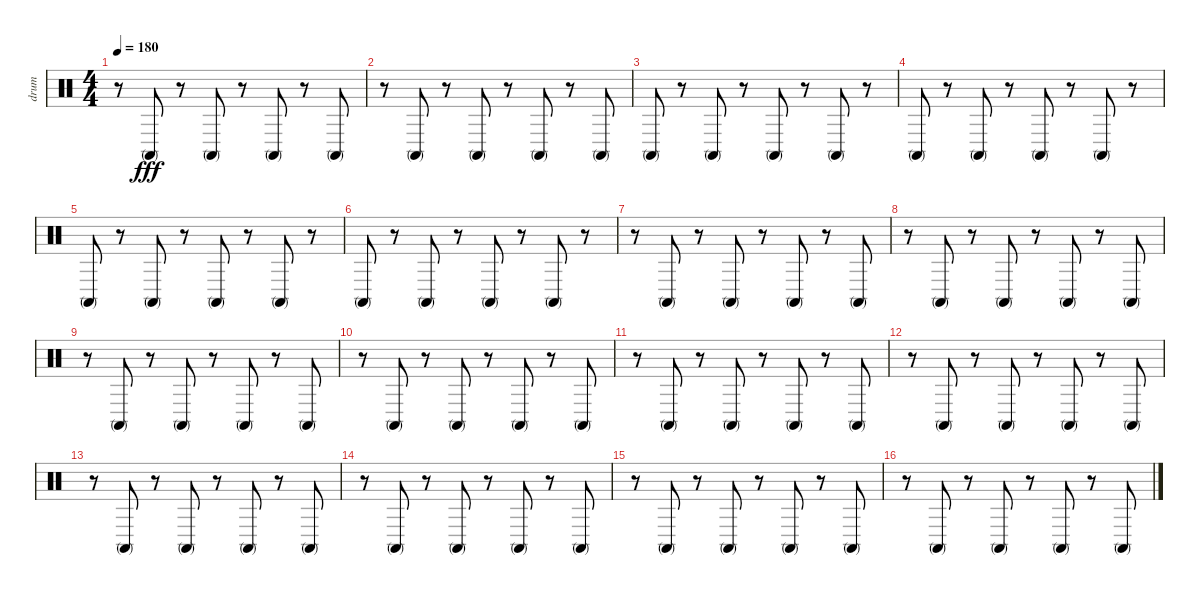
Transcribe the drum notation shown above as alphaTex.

\track ("drum" "drum") {instrument percussion}
\staff {score}
\articulation defaults
\ts (4 4)
\tempo 180
\clef neutral
\ks c
r.8{dy fff} "Conga high (mute)".8 r.8 "Conga high (mute)".8 r.8 "Conga high (mute)".8 r.8 "Conga high (mute)".8 |
r.8 "Conga high (mute)".8 r.8 "Conga high (mute)".8 r.8 "Conga high (mute)".8 r.8 "Conga high (mute)".8 |
"Conga high (mute)".8 r.8 "Conga high (mute)".8 r.8 "Conga high (mute)".8 r.8 "Conga high (mute)".8 r.8 |
"Conga high (mute)".8 r.8 "Conga high (mute)".8 r.8 "Conga high (mute)".8 r.8 "Conga high (mute)".8 r.8 |
"Conga high (mute)".8 r.8 "Conga high (mute)".8 r.8 "Conga high (mute)".8 r.8 "Conga high (mute)".8 r.8 |
"Conga high (mute)".8 r.8 "Conga high (mute)".8 r.8 "Conga high (mute)".8 r.8 "Conga high (mute)".8 r.8 |
r.8 "Conga high (mute)".8 r.8 "Conga high (mute)".8 r.8 "Conga high (mute)".8 r.8 "Conga high (mute)".8 |
r.8 "Conga high (mute)".8 r.8 "Conga high (mute)".8 r.8 "Conga high (mute)".8 r.8 "Conga high (mute)".8 |
r.8 "Conga high (mute)".8 r.8 "Conga high (mute)".8 r.8 "Conga high (mute)".8 r.8 "Conga high (mute)".8 |
r.8 "Conga high (mute)".8 r.8 "Conga high (mute)".8 r.8 "Conga high (mute)".8 r.8 "Conga high (mute)".8 |
r.8 "Conga high (mute)".8 r.8 "Conga high (mute)".8 r.8 "Conga high (mute)".8 r.8 "Conga high (mute)".8 |
r.8 "Conga high (mute)".8 r.8 "Conga high (mute)".8 r.8 "Conga high (mute)".8 r.8 "Conga high (mute)".8 |
r.8 "Conga high (mute)".8 r.8 "Conga high (mute)".8 r.8 "Conga high (mute)".8 r.8 "Conga high (mute)".8 |
r.8 "Conga high (mute)".8 r.8 "Conga high (mute)".8 r.8 "Conga high (mute)".8 r.8 "Conga high (mute)".8 |
r.8 "Conga high (mute)".8 r.8 "Conga high (mute)".8 r.8 "Conga high (mute)".8 r.8 "Conga high (mute)".8 |
r.8 "Conga high (mute)".8 r.8 "Conga high (mute)".8 r.8 "Conga high (mute)".8 r.8 "Conga high (mute)".8
